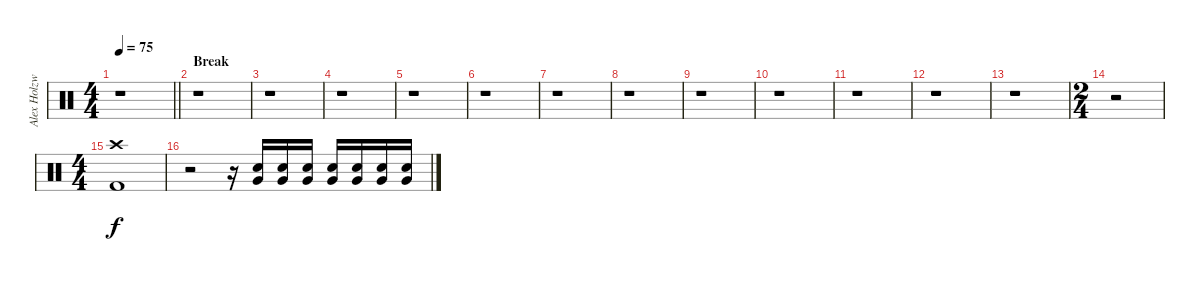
\track ("Alex Holzwarth (Drums)" "Alex Holzw") {instrument percussion}
\staff {score}
\articulation defaults
\ts (4 4)
\tempo 75
\clef neutral
\barLineRight lightlight
\ks c
r.1{dy f} |
\section ("" "Break")
r.1 |
r.1 |
r.1 |
r.1 |
r.1 |
r.1 |
r.1 |
r.1 |
r.1 |
r.1 |
r.1 |
r.1 |
\ts (2 4)
r.2 |
\ts (4 4)
("Crash high (hit)" "Kick (hit) 2").1 |
r.2 r.16 ("Very Low Tom (hit)" "Electric Snare (hit)").16 ("Very Low Tom (hit)" "Electric Snare (hit)").16 ("Very Low Tom (hit)" "Electric Snare (hit)").16 ("Very Low Tom (hit)" "Electric Snare (hit)").16 ("Very Low Tom (hit)" "Electric Snare (hit)").16 ("Very Low Tom (hit)" "Electric Snare (hit)").16 ("Very Low Tom (hit)" "Electric Snare (hit)").16
